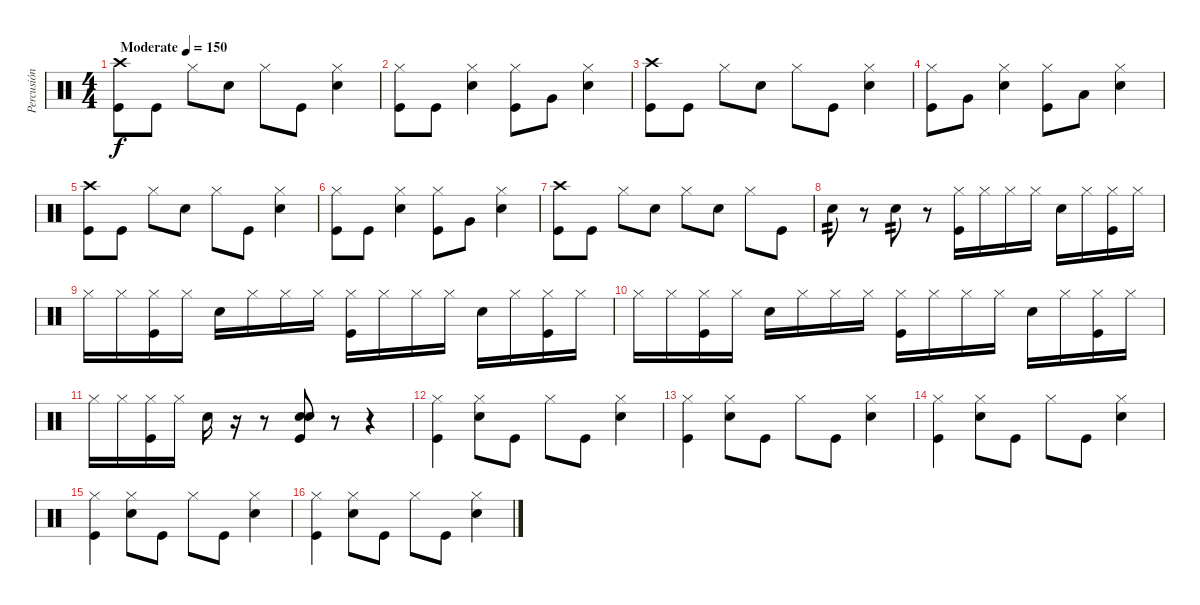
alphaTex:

\track ("Percusión" "Percusión") {instrument percussion}
\staff {score}
\articulation defaults
\ts (4 4)
\tempo (150 "Moderate")
\clef neutral
\ks c
("Crash high (hit)" "Kick (hit)").8{dy f} "Kick (hit)".8 "Hi-Hat (closed)".8 "Snare (hit) 2".8 "Hi-Hat (closed)".8 "Kick (hit)".8 ("Hi-Hat (closed)" "Snare (hit) 2").4 |
("Hi-Hat (closed)" "Kick (hit)").8 "Kick (hit)".8 ("Hi-Hat (closed)" "Snare (hit) 2").4 ("Hi-Hat (closed)" "Kick (hit)").8 "Very Low Tom (hit)".8 ("Hi-Hat (closed)" "Snare (hit) 2").4 |
("Crash high (hit)" "Kick (hit)").8 "Kick (hit)".8 "Hi-Hat (closed)".8 "Snare (hit) 2".8 "Hi-Hat (closed)".8 "Kick (hit)".8 ("Hi-Hat (closed)" "Snare (hit) 2").4 |
("Hi-Hat (closed)" "Kick (hit)").8 "Very Low Tom (hit)".8 ("Hi-Hat (closed)" "Snare (hit) 2").4 ("Hi-Hat (closed)" "Kick (hit)").8 "Low Floor Tom (hit)".8 ("Hi-Hat (closed)" "Snare (hit) 2").4 |
("Crash high (hit)" "Kick (hit)").8 "Kick (hit)".8 "Hi-Hat (closed)".8 "Snare (hit) 2".8 "Hi-Hat (closed)".8 "Kick (hit)".8 ("Hi-Hat (closed)" "Snare (hit) 2").4 |
("Hi-Hat (closed)" "Kick (hit)").8 "Kick (hit)".8 ("Hi-Hat (closed)" "Snare (hit) 2").4 ("Hi-Hat (closed)" "Kick (hit)").8 "Very Low Tom (hit)".8 ("Hi-Hat (closed)" "Snare (hit) 2").4 |
("Crash high (hit)" "Kick (hit)").8 "Kick (hit)".8 "Hi-Hat (closed)".8 "Snare (hit) 2".8 "Hi-Hat (closed)".8 "Snare (hit) 2".8 "Hi-Hat (closed)".8 "Kick (hit)".8 |
"Snare (hit) 2".8{tp 2} r.8 "Snare (hit) 2".8{tp 2} r.8 ("Hi-Hat (closed)" "Kick (hit)").16 "Hi-Hat (closed)".16 "Hi-Hat (closed)".16 "Hi-Hat (closed)".16 "Snare (hit) 2".16 "Hi-Hat (closed)".16 ("Hi-Hat (closed)" "Kick (hit)").16 "Hi-Hat (closed)".16 |
"Hi-Hat (closed)".16 "Hi-Hat (closed)".16 ("Hi-Hat (closed)" "Kick (hit)").16 "Hi-Hat (closed)".16 "Snare (hit) 2".16 "Hi-Hat (closed)".16 "Hi-Hat (closed)".16 "Hi-Hat (closed)".16 ("Hi-Hat (closed)" "Kick (hit)").16 "Hi-Hat (closed)".16 "Hi-Hat (closed)".16 "Hi-Hat (closed)".16 "Snare (hit) 2".16 "Hi-Hat (closed)".16 ("Hi-Hat (closed)" "Kick (hit)").16 "Hi-Hat (closed)".16 |
"Hi-Hat (closed)".16 "Hi-Hat (closed)".16 ("Hi-Hat (closed)" "Kick (hit)").16 "Hi-Hat (closed)".16 "Snare (hit) 2".16 "Hi-Hat (closed)".16 "Hi-Hat (closed)".16 "Hi-Hat (closed)".16 ("Hi-Hat (closed)" "Kick (hit)").16 "Hi-Hat (closed)".16 "Hi-Hat (closed)".16 "Hi-Hat (closed)".16 "Snare (hit) 2".16 "Hi-Hat (closed)".16 ("Hi-Hat (closed)" "Kick (hit)").16 "Hi-Hat (closed)".16 |
"Hi-Hat (closed)".16 "Hi-Hat (closed)".16 ("Hi-Hat (closed)" "Kick (hit)").16 "Hi-Hat (closed)".16 "Snare (hit) 2".16 r.16 r.8 ("Snare (hit) 2" "Snare (hit) 2" "Kick (hit)").8 r.8 r.4 |
("Hi-Hat (closed)" "Kick (hit)").4 ("Hi-Hat (closed)" "Snare (hit) 2").8 "Kick (hit)".8 "Hi-Hat (closed)".8 "Kick (hit)".8 ("Hi-Hat (closed)" "Snare (hit) 2").4 |
("Hi-Hat (closed)" "Kick (hit)").4 ("Hi-Hat (closed)" "Snare (hit) 2").8 "Kick (hit)".8 "Hi-Hat (closed)".8 "Kick (hit)".8 ("Hi-Hat (closed)" "Snare (hit) 2").4 |
("Hi-Hat (closed)" "Kick (hit)").4 ("Hi-Hat (closed)" "Snare (hit) 2").8 "Kick (hit)".8 "Hi-Hat (closed)".8 "Kick (hit)".8 ("Hi-Hat (closed)" "Snare (hit) 2").4 |
("Hi-Hat (closed)" "Kick (hit)").4 ("Hi-Hat (closed)" "Snare (hit) 2").8 "Kick (hit)".8 "Hi-Hat (closed)".8 "Kick (hit)".8 ("Hi-Hat (closed)" "Snare (hit) 2").4 |
("Hi-Hat (closed)" "Kick (hit)").4 ("Hi-Hat (closed)" "Snare (hit) 2").8 "Kick (hit)".8 "Hi-Hat (closed)".8 "Kick (hit)".8 ("Hi-Hat (closed)" "Snare (hit) 2").4
